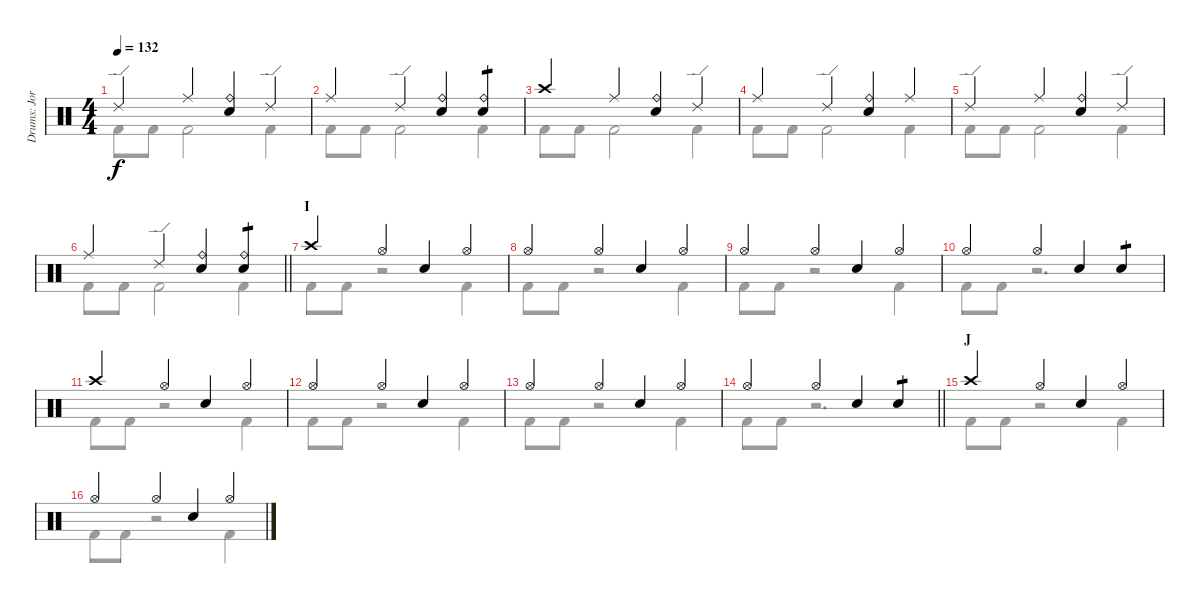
\track ("Drums: Jorg" "Drums: Jor") {instrument percussion}
\staff {score}
\articulation defaults
\voice
\ts (4 4)
\tempo 132
\clef neutral
\ks c "Ride (edge) 2".4{dy f} "Ride (middle)".4
("Ride (bell)" "Snare (hit) 2").4 "Ride (edge) 2".4 |
"Ride (middle)".4 "Ride (edge) 2".4 ("Ride (bell)" "Snare (hit) 2").4 ("Ride (bell)" "Snare (hit) 2").4{tp 1} |
"Crash high (hit)".4 "Ride (middle)".4 ("Ride (bell)" "Snare (hit) 2").4 "Ride (edge) 2".4 |
"Ride (middle)".4 "Ride (edge) 2".4 ("Ride (bell)" "Snare (hit) 2").4 "Ride (middle)".4 |
"Ride (edge) 2".4 "Ride (middle)".4 ("Ride (bell)" "Snare (hit) 2").4 "Ride (edge) 2".4 |
\barLineRight lightlight "Ride (middle)".4 "Ride (edge) 2".4
("Ride (bell)" "Snare (hit) 2").4 ("Ride (bell)" "Snare (hit) 2").4{tp 1} |
\section ("" "I")
"Crash high (hit)".4 "Hi-Hat (open)".4 "Snare (hit) 2".4 "Hi-Hat (open)".4 |
"Hi-Hat (open)".4 "Hi-Hat (open)".4 "Snare (hit) 2".4 "Hi-Hat (open)".4 |
"Hi-Hat (open)".4 "Hi-Hat (open)".4 "Snare (hit) 2".4 "Hi-Hat (open)".4 |
"Hi-Hat (open)".4 "Hi-Hat (open)".4 "Snare (hit) 2".4 "Snare (hit) 2".4{tp 1} |
"Crash high (hit)".4 "Hi-Hat (open)".4 "Snare (hit) 2".4 "Hi-Hat (open)".4 |
"Hi-Hat (open)".4 "Hi-Hat (open)".4 "Snare (hit) 2".4 "Hi-Hat (open)".4 |
"Hi-Hat (open)".4 "Hi-Hat (open)".4 "Snare (hit) 2".4 "Hi-Hat (open)".4 |
\barLineRight lightlight "Hi-Hat (open)".4 "Hi-Hat (open)".4 "Snare (hit) 2".4 "Snare (hit) 2".4{tp 1}
|
\section ("" "J")
"Crash high (hit)".4 "Hi-Hat (open)".4 "Snare (hit) 2".4 "Hi-Hat (open)".4 |
"Hi-Hat (open)".4 "Hi-Hat (open)".4 "Snare (hit) 2".4 "Hi-Hat (open)".4
\voice
\clef neutral
\ottava regular
\simile none
\ks c "Kick (hit) 2".8{dy f} "Kick (hit) 2".8 "Kick (hit) 2".2 "Kick (hit) 2".4
|
"Kick (hit) 2".8 "Kick (hit) 2".8 "Kick (hit) 2".2 "Kick (hit) 2".4 |
"Kick (hit) 2".8 "Kick (hit) 2".8 "Kick (hit) 2".2 "Kick (hit) 2".4 |
"Kick (hit) 2".8 "Kick (hit) 2".8 "Kick (hit) 2".2 "Kick (hit) 2".4 |
"Kick (hit) 2".8 "Kick (hit) 2".8 "Kick (hit) 2".2 "Kick (hit) 2".4 |
\barLineRight lightlight "Kick (hit) 2".8 "Kick (hit) 2".8 "Kick (hit) 2".2 "Kick (hit) 2".4
|
"Kick (hit) 2".8 "Kick (hit) 2".8 r.2 "Kick (hit) 2".4 |
"Kick (hit) 2".8 "Kick (hit) 2".8 r.2 "Kick (hit) 2".4 |
"Kick (hit) 2".8 "Kick (hit) 2".8 r.2 "Kick (hit) 2".4 |
"Kick (hit) 2".8 "Kick (hit) 2".8 r.2{d} |
"Kick (hit) 2".8 "Kick (hit) 2".8 r.2 "Kick (hit) 2".4 |
"Kick (hit) 2".8 "Kick (hit) 2".8 r.2 "Kick (hit) 2".4 |
"Kick (hit) 2".8 "Kick (hit) 2".8 r.2 "Kick (hit) 2".4 |
\barLineRight lightlight "Kick (hit) 2".8 "Kick (hit) 2".8
r.2{d} |
"Kick (hit) 2".8 "Kick (hit) 2".8 r.2 "Kick (hit) 2".4 |
"Kick (hit) 2".8 "Kick (hit) 2".8 r.2 "Kick (hit) 2".4
